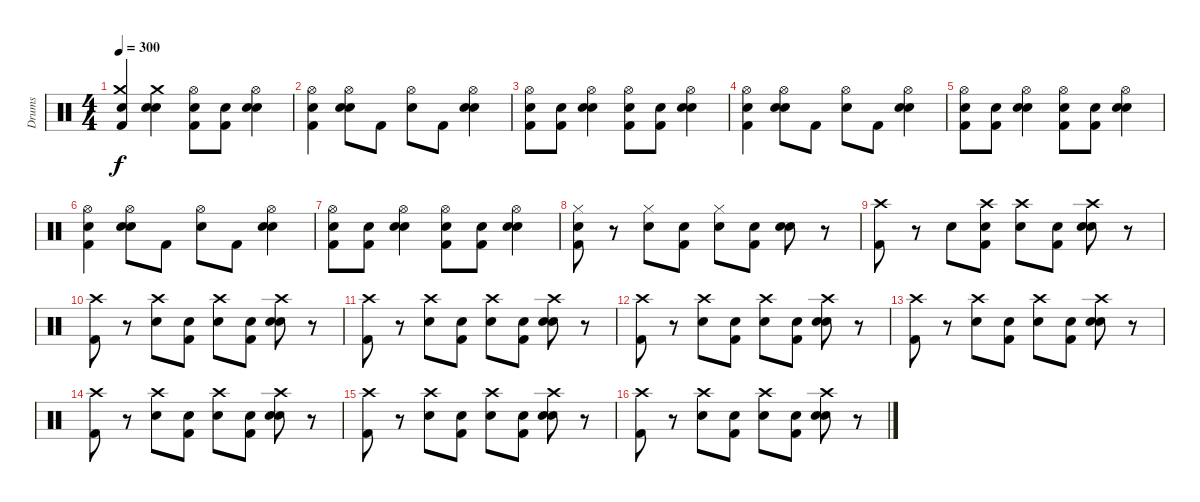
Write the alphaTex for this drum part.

\track ("Drums" "Drums") {instrument percussion}
\staff {score}
\articulation defaults
\ts (4 4)
\tempo 300
\clef neutral
\ks c
("Snare (hit)" "Crash medium (hit)" "Kick (hit) 2").4{dy f} ("Snare (hit)" "Crash medium (hit)" "Electric Snare (hit)").4 ("Snare (hit)" "Hi-Hat (open)" "Kick (hit) 2").8 ("Snare (hit)" "Kick (hit) 2").8 ("Snare (hit)" "Hi-Hat (open)" "Electric Snare (hit)").4 |
("Snare (hit)" "Hi-Hat (open)" "Kick (hit) 2").4 ("Snare (hit)" "Hi-Hat (open)" "Electric Snare (hit)").8 "Kick (hit) 2".8 ("Snare (hit)" "Hi-Hat (open)").8 "Kick (hit) 2".8 ("Snare (hit)" "Hi-Hat (open)" "Electric Snare (hit)").4 |
("Snare (hit)" "Hi-Hat (open)" "Kick (hit) 2").8 ("Snare (hit)" "Kick (hit) 2").8 ("Snare (hit)" "Electric Snare (hit)" "Hi-Hat (open)").4 ("Snare (hit)" "Hi-Hat (open)" "Kick (hit) 2").8 ("Snare (hit)" "Kick (hit) 2").8 ("Snare (hit)" "Electric Snare (hit)" "Hi-Hat (open)").4 |
("Snare (hit)" "Hi-Hat (open)" "Kick (hit) 2").4 ("Snare (hit)" "Hi-Hat (open)" "Electric Snare (hit)").8 "Kick (hit) 2".8 ("Snare (hit)" "Hi-Hat (open)").8 "Kick (hit) 2".8 ("Snare (hit)" "Hi-Hat (open)" "Electric Snare (hit)").4 |
("Snare (hit)" "Hi-Hat (open)" "Kick (hit) 2").8 ("Snare (hit)" "Kick (hit) 2").8 ("Snare (hit)" "Electric Snare (hit)" "Hi-Hat (open)").4 ("Snare (hit)" "Hi-Hat (open)" "Kick (hit) 2").8 ("Snare (hit)" "Kick (hit) 2").8 ("Snare (hit)" "Electric Snare (hit)" "Hi-Hat (open)").4 |
("Snare (hit)" "Hi-Hat (open)" "Kick (hit) 2").4 ("Snare (hit)" "Hi-Hat (open)" "Electric Snare (hit)").8 "Kick (hit) 2".8 ("Snare (hit)" "Hi-Hat (open)").8 "Kick (hit) 2".8 ("Snare (hit)" "Hi-Hat (open)" "Electric Snare (hit)").4 |
("Snare (hit)" "Hi-Hat (open)" "Kick (hit) 2").8 ("Snare (hit)" "Kick (hit) 2").8 ("Snare (hit)" "Electric Snare (hit)" "Hi-Hat (open)").4 ("Snare (hit)" "Hi-Hat (open)" "Kick (hit) 2").8 ("Snare (hit)" "Kick (hit) 2").8 ("Snare (hit)" "Electric Snare (hit)" "Hi-Hat (open)").4 |
("Snare (hit)" "Hi-Hat (closed)" "Kick (hit) 2").8 r.8 ("Hi-Hat (closed)" "Electric Snare (hit)").8 ("Snare (hit)" "Kick (hit) 2").8 ("Snare (hit)" "Hi-Hat (closed)").8 ("Snare (hit)" "Kick (hit) 2").8 ("Snare (hit)" "Electric Snare (hit)").8 r.8 |
("Crash high (hit)" "Kick (hit) 2").8 r.8 "Electric Snare (hit)".8 ("Snare (hit)" "Crash high (hit)" "Kick (hit) 2").8 ("Snare (hit)" "Crash high (hit)").8 ("Snare (hit)" "Kick (hit) 2").8 ("Snare (hit)" "Crash high (hit)" "Electric Snare (hit)").8 r.8 |
("Crash high (hit)" "Kick (hit) 2").8 r.8 ("Crash high (hit)" "Electric Snare (hit)").8 ("Snare (hit)" "Kick (hit) 2").8 ("Snare (hit)" "Crash high (hit)").8 ("Snare (hit)" "Kick (hit) 2").8 ("Snare (hit)" "Crash high (hit)" "Electric Snare (hit)").8 r.8 |
("Crash high (hit)" "Kick (hit) 2").8 r.8 ("Crash high (hit)" "Electric Snare (hit)").8 ("Snare (hit)" "Kick (hit) 2").8 ("Snare (hit)" "Crash high (hit)").8 ("Snare (hit)" "Kick (hit) 2").8 ("Snare (hit)" "Crash high (hit)" "Electric Snare (hit)").8 r.8 |
("Crash high (hit)" "Kick (hit) 2").8 r.8 ("Crash high (hit)" "Electric Snare (hit)").8 ("Snare (hit)" "Kick (hit) 2").8 ("Snare (hit)" "Crash high (hit)").8 ("Snare (hit)" "Kick (hit) 2").8 ("Snare (hit)" "Crash high (hit)" "Electric Snare (hit)").8 r.8 |
("Crash high (hit)" "Kick (hit) 2").8 r.8 ("Crash high (hit)" "Electric Snare (hit)").8 ("Snare (hit)" "Kick (hit) 2").8 ("Snare (hit)" "Crash high (hit)").8 ("Snare (hit)" "Kick (hit) 2").8 ("Snare (hit)" "Crash high (hit)" "Electric Snare (hit)").8 r.8 |
("Crash high (hit)" "Kick (hit) 2").8 r.8 ("Crash high (hit)" "Electric Snare (hit)").8 ("Snare (hit)" "Kick (hit) 2").8 ("Snare (hit)" "Crash high (hit)").8 ("Snare (hit)" "Kick (hit) 2").8 ("Snare (hit)" "Crash high (hit)" "Electric Snare (hit)").8 r.8 |
("Crash high (hit)" "Kick (hit) 2").8 r.8 ("Crash high (hit)" "Electric Snare (hit)").8 ("Snare (hit)" "Kick (hit) 2").8 ("Snare (hit)" "Crash high (hit)").8 ("Snare (hit)" "Kick (hit) 2").8 ("Snare (hit)" "Crash high (hit)" "Electric Snare (hit)").8 r.8 |
("Crash high (hit)" "Kick (hit) 2").8 r.8 ("Crash high (hit)" "Electric Snare (hit)").8 ("Snare (hit)" "Kick (hit) 2").8 ("Snare (hit)" "Crash high (hit)").8 ("Snare (hit)" "Kick (hit) 2").8 ("Snare (hit)" "Crash high (hit)" "Electric Snare (hit)").8 r.8
